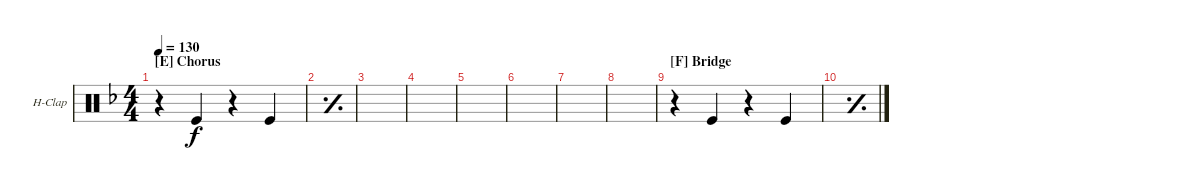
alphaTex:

\defaultSystemsLayout 4
\bracketExtendMode groupsimilarinstruments
\firstSystemTrackNameOrientation horizontal
\otherSystemsTrackNameOrientation horizontal
\track ("Hand Clap" "H-Clap") {instrument percussion}
\staff {score}
\articulation defaults
\ts (4 4)
\section ("E" "Chorus")
\tempo 130
\clef neutral
\ks f
r.4{dy f} "Kick (hit)".4 r.4 "Kick (hit)".4 |
\simile simple
|
|
|
|
|
|
|
\section ("F" "Bridge")
\simile none
r.4 "Kick (hit)".4 r.4 "Kick (hit)".4 |
\simile simple
